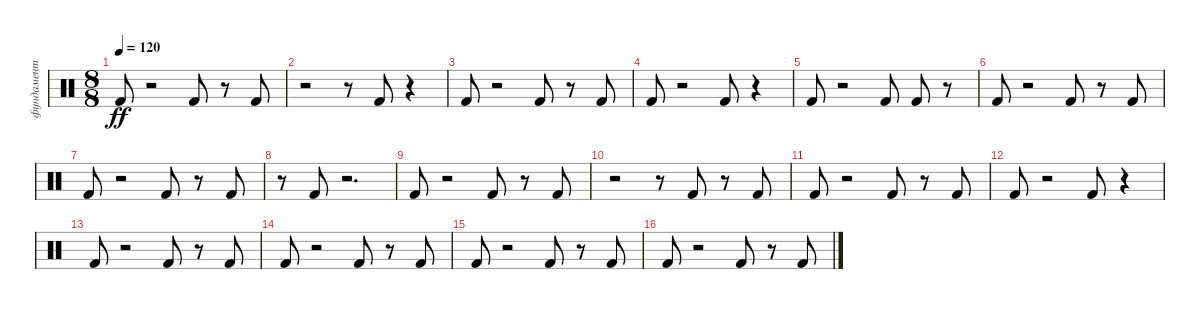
\track ("фундамент" "фундамент") {instrument percussion}
\staff {score}
\articulation defaults
\ts (8 8)
\tempo 120
\clef neutral
\ks c "Kick (hit) 2".8{dy ff}
r.2 "Kick (hit) 2".8 r.8 "Kick (hit) 2".8 |
r.2 r.8 "Kick (hit) 2".8 r.4 |
"Kick (hit) 2".8 r.2 "Kick (hit) 2".8 r.8 "Kick (hit) 2".8 |
"Kick (hit) 2".8 r.2 "Kick (hit) 2".8 r.4 |
"Kick (hit) 2".8 r.2 "Kick (hit) 2".8 "Kick (hit) 2".8 r.8 |
"Kick (hit) 2".8 r.2 "Kick (hit) 2".8 r.8 "Kick (hit) 2".8 |
"Kick (hit) 2".8 r.2 "Kick (hit) 2".8 r.8 "Kick (hit) 2".8 |
r.8 "Kick (hit) 2".8 r.2{d} |
"Kick (hit) 2".8 r.2 "Kick (hit) 2".8 r.8 "Kick (hit) 2".8 |
r.2 r.8 "Kick (hit) 2".8 r.8 "Kick (hit) 2".8 |
"Kick (hit) 2".8 r.2 "Kick (hit) 2".8 r.8 "Kick (hit) 2".8 |
"Kick (hit) 2".8 r.2 "Kick (hit) 2".8 r.4 |
"Kick (hit) 2".8 r.2 "Kick (hit) 2".8 r.8 "Kick (hit) 2".8 |
"Kick (hit) 2".8 r.2 "Kick (hit) 2".8 r.8 "Kick (hit) 2".8 |
"Kick (hit) 2".8 r.2 "Kick (hit) 2".8 r.8 "Kick (hit) 2".8 |
"Kick (hit) 2".8 r.2 "Kick (hit) 2".8 r.8 "Kick (hit) 2".8
